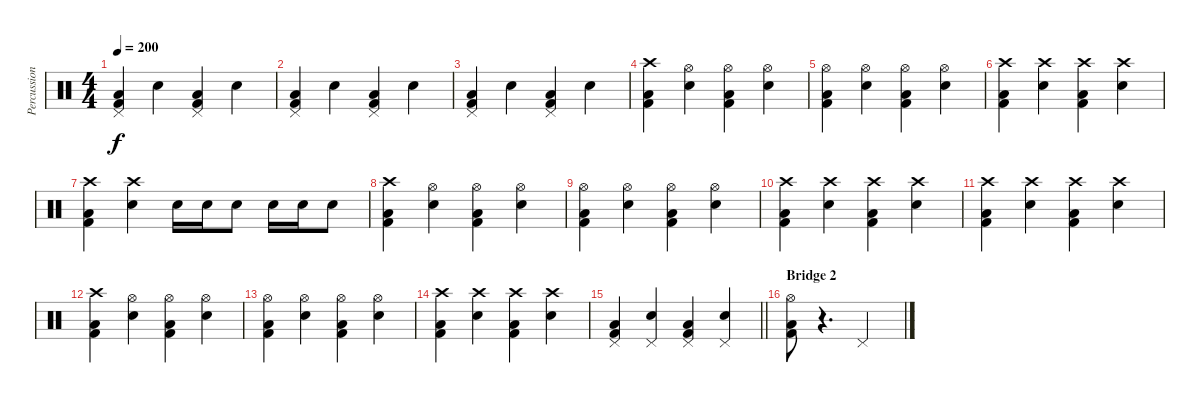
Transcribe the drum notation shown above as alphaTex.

\track ("Percussion" "Percussion") {instrument percussion}
\staff {score}
\articulation defaults
\ts (4 4)
\tempo 200
\clef neutral
\ks c
("Kick (hit) 2" "Low Floor Tom (hit)" "Pedal Hi-Hat (hit)").4{dy f} "Electric Snare (hit)".4 ("Kick (hit) 2" "Low Floor Tom (hit)" "Pedal Hi-Hat (hit)").4 "Electric Snare (hit)".4 |
("Kick (hit) 2" "Low Floor Tom (hit)" "Pedal Hi-Hat (hit)").4 "Electric Snare (hit)".4 ("Kick (hit) 2" "Low Floor Tom (hit)" "Pedal Hi-Hat (hit)").4 "Electric Snare (hit)".4 |
("Kick (hit) 2" "Low Floor Tom (hit)" "Pedal Hi-Hat (hit)").4 "Electric Snare (hit)".4 ("Kick (hit) 2" "Low Floor Tom (hit)" "Pedal Hi-Hat (hit)").4 "Electric Snare (hit)".4 |
("Kick (hit) 2" "Low Floor Tom (hit)" "Crash high (hit)").4 ("Electric Snare (hit)" "Hi-Hat (open)").4 ("Kick (hit) 2" "Low Floor Tom (hit)" "Hi-Hat (open)").4 ("Electric Snare (hit)" "Hi-Hat (open)").4 |
("Kick (hit) 2" "Low Floor Tom (hit)" "Hi-Hat (open)").4 ("Electric Snare (hit)" "Hi-Hat (open)").4 ("Kick (hit) 2" "Low Floor Tom (hit)" "Hi-Hat (open)").4 ("Electric Snare (hit)" "Hi-Hat (open)").4 |
("Kick (hit) 2" "Low Floor Tom (hit)" "Crash high (hit)").4 ("Electric Snare (hit)" "Crash high (hit)").4 ("Kick (hit) 2" "Low Floor Tom (hit)" "Crash high (hit)").4 ("Electric Snare (hit)" "Crash high (hit)").4 |
("Kick (hit) 2" "Low Floor Tom (hit)" "Crash high (hit)").4 ("Electric Snare (hit)" "Crash high (hit)").4 "Electric Snare (hit)".16 "Electric Snare (hit)".16 "Electric Snare (hit)".8 "Electric Snare (hit)".16 "Electric Snare (hit)".16 "Electric Snare (hit)".8 |
("Kick (hit) 2" "Low Floor Tom (hit)" "Crash high (hit)").4 ("Electric Snare (hit)" "Hi-Hat (open)").4 ("Kick (hit) 2" "Low Floor Tom (hit)" "Hi-Hat (open)").4 ("Electric Snare (hit)" "Hi-Hat (open)").4 |
("Kick (hit) 2" "Low Floor Tom (hit)" "Hi-Hat (open)").4 ("Electric Snare (hit)" "Hi-Hat (open)").4 ("Kick (hit) 2" "Low Floor Tom (hit)" "Hi-Hat (open)").4 ("Electric Snare (hit)" "Hi-Hat (open)").4 |
("Kick (hit) 2" "Low Floor Tom (hit)" "Crash high (hit)").4 ("Electric Snare (hit)" "Crash high (hit)").4 ("Kick (hit) 2" "Low Floor Tom (hit)" "Crash high (hit)").4 ("Electric Snare (hit)" "Crash high (hit)").4 |
("Kick (hit) 2" "Low Floor Tom (hit)" "Crash high (hit)").4 ("Electric Snare (hit)" "Crash high (hit)").4 ("Kick (hit) 2" "Low Floor Tom (hit)" "Crash high (hit)").4 ("Electric Snare (hit)" "Crash high (hit)").4 |
("Kick (hit) 2" "Low Floor Tom (hit)" "Crash high (hit)").4 ("Electric Snare (hit)" "Hi-Hat (open)").4 ("Kick (hit) 2" "Low Floor Tom (hit)" "Hi-Hat (open)").4 ("Electric Snare (hit)" "Hi-Hat (open)").4 |
("Kick (hit) 2" "Low Floor Tom (hit)" "Hi-Hat (open)").4 ("Electric Snare (hit)" "Hi-Hat (open)").4 ("Kick (hit) 2" "Low Floor Tom (hit)" "Hi-Hat (open)").4 ("Electric Snare (hit)" "Hi-Hat (open)").4 |
("Kick (hit) 2" "Low Floor Tom (hit)" "Crash high (hit)").4 ("Electric Snare (hit)" "Crash high (hit)").4 ("Kick (hit) 2" "Low Floor Tom (hit)" "Crash high (hit)").4 ("Electric Snare (hit)" "Crash high (hit)").4 |
\barLineRight lightlight
("Kick (hit) 2" "Low Floor Tom (hit)" "Pedal Hi-Hat (hit)").4 ("Electric Snare (hit)" "Pedal Hi-Hat (hit)").4 ("Kick (hit) 2" "Low Floor Tom (hit)" "Pedal Hi-Hat (hit)").4 ("Electric Snare (hit)" "Pedal Hi-Hat (hit)").4 |
\section ("" "Bridge 2")
("Kick (hit) 2" "Low Floor Tom (hit)" "Hi-Hat (open)").8 r.4{d} "Pedal Hi-Hat (hit)".2
